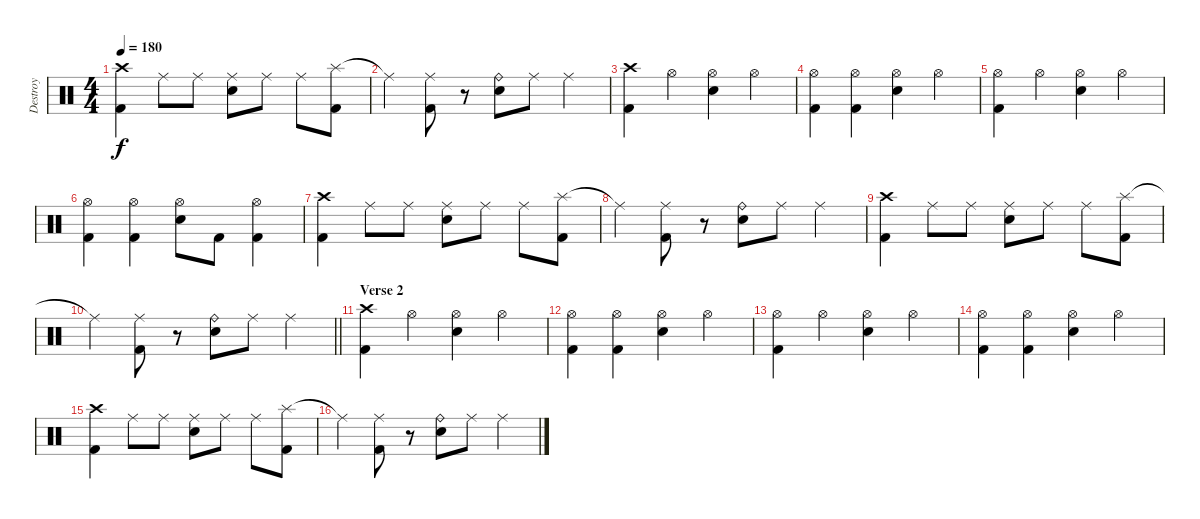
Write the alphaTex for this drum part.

\track ("Destroy" "Destroy") {instrument percussion}
\staff {score}
\articulation defaults
\ts (4 4)
\tempo 180
\clef neutral
\ks c
("Crash high (hit)" "Kick (hit) 2").4{dy f} "Ride (middle)".8 "Ride (middle)".8 ("Ride (middle)" "Snare (hit) 2").8 "Ride (middle)".8 "Ride (middle)".8 ("Splash (hit)" "Kick (hit) 2").8 |
"Ride (middle)"{t}.4 ("Ride (middle)" "Kick (hit) 2").8 r.8 ("Ride (bell)" "Snare (hit) 2").8 "Ride (middle)".8 "Ride (middle)".4 |
("Crash high (hit)" "Kick (hit) 2").4 "Hi-Hat (open)".4 ("Hi-Hat (open)" "Snare (hit) 2").4 "Hi-Hat (open)".4 |
("Hi-Hat (open)" "Kick (hit) 2").4 ("Hi-Hat (open)" "Kick (hit) 2").4 ("Hi-Hat (open)" "Snare (hit) 2").4 "Hi-Hat (open)".4 |
("Hi-Hat (open)" "Kick (hit) 2").4 "Hi-Hat (open)".4 ("Hi-Hat (open)" "Snare (hit) 2").4 "Hi-Hat (open)".4 |
("Hi-Hat (open)" "Kick (hit) 2").4 ("Hi-Hat (open)" "Kick (hit) 2").4 ("Hi-Hat (open)" "Snare (hit) 2").8 "Kick (hit) 2".8 ("Hi-Hat (open)" "Kick (hit) 2").4 |
("Crash high (hit)" "Kick (hit) 2").4 "Ride (middle)".8 "Ride (middle)".8 ("Ride (middle)" "Snare (hit) 2").8 "Ride (middle)".8 "Ride (middle)".8 ("Splash (hit)" "Kick (hit) 2").8 |
"Ride (middle)"{t}.4 ("Ride (middle)" "Kick (hit) 2").8 r.8 ("Ride (bell)" "Snare (hit) 2").8 "Ride (middle)".8 "Ride (middle)".4 |
("Crash high (hit)" "Kick (hit) 2").4 "Ride (middle)".8 "Ride (middle)".8 ("Ride (middle)" "Snare (hit) 2").8 "Ride (middle)".8 "Ride (middle)".8 ("Splash (hit)" "Kick (hit) 2").8 |
\barLineRight lightlight "Ride (middle)"{t}.4
("Ride (middle)" "Kick (hit) 2").8 r.8 ("Ride (bell)" "Snare (hit) 2").8 "Ride (middle)".8 "Ride (middle)".4 |
\section ("" "Verse 2")
("Crash high (hit)" "Kick (hit) 2").4 "Hi-Hat (open)".4 ("Hi-Hat (open)" "Snare (hit) 2").4 "Hi-Hat (open)".4 |
("Hi-Hat (open)" "Kick (hit) 2").4 ("Hi-Hat (open)" "Kick (hit) 2").4 ("Hi-Hat (open)" "Snare (hit) 2").4 "Hi-Hat (open)".4 |
("Hi-Hat (open)" "Kick (hit) 2").4 "Hi-Hat (open)".4 ("Hi-Hat (open)" "Snare (hit) 2").4 "Hi-Hat (open)".4 |
("Hi-Hat (open)" "Kick (hit) 2").4 ("Hi-Hat (open)" "Kick (hit) 2").4 ("Hi-Hat (open)" "Snare (hit) 2").4 "Hi-Hat (open)".4 |
("Crash high (hit)" "Kick (hit) 2").4 "Ride (middle)".8 "Ride (middle)".8 ("Ride (middle)" "Snare (hit) 2").8 "Ride (middle)".8 "Ride (middle)".8 ("Splash (hit)" "Kick (hit) 2").8 |
"Ride (middle)"{t}.4 ("Ride (middle)" "Kick (hit) 2").8 r.8 ("Ride (bell)" "Snare (hit) 2").8 "Ride (middle)".8 "Ride (middle)".4
